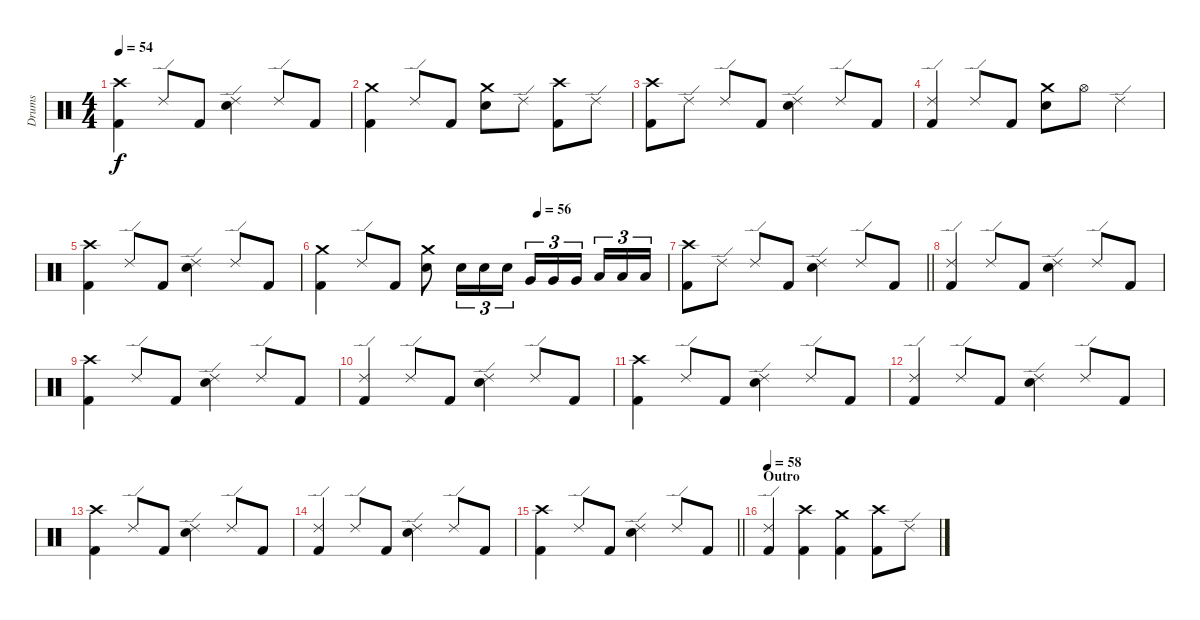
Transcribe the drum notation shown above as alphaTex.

\track ("Drums" "Drums") {instrument percussion}
\staff {score}
\articulation defaults
\ts (4 4)
\tempo 54
\clef neutral
\ks c
("Crash high (hit)" "Kick (hit) 2").4{dy f} "Ride (edge) 2".8 "Kick (hit) 2".8 ("Ride (edge) 2" "Electric Snare (hit)").4 "Ride (edge) 2".8 "Kick (hit) 2".8 |
("Crash medium (hit)" "Kick (hit) 2").4 "Ride (edge) 2".8 "Kick (hit) 2".8 ("Crash medium (hit)" "Electric Snare (hit)").8 "Ride (edge) 2".8 ("Crash high (hit)" "Kick (hit) 2").8 "Ride (edge) 2".8 |
("Crash high (hit)" "Kick (hit) 2").8 "Ride (edge) 2".8 "Ride (edge) 2".8 "Kick (hit) 2".8 ("Ride (edge) 2" "Electric Snare (hit)").4 "Ride (edge) 2".8 "Kick (hit) 2".8 |
("Ride (edge) 2" "Kick (hit) 2").4 "Ride (edge) 2".8 "Kick (hit) 2".8 ("Crash medium (hit)" "Electric Snare (hit)").8 "Hi-Hat (open)".8 "Ride (edge) 2".4 |
("Crash high (hit)" "Kick (hit) 2").4 "Ride (edge) 2".8 "Kick (hit) 2".8 ("Ride (edge) 2" "Electric Snare (hit)").4 "Ride (edge) 2".8 "Kick (hit) 2".8 |
\tempo (56 0.625)
("Crash medium (hit)" "Kick (hit) 2").4 "Ride (edge) 2".8 "Kick (hit) 2".8 ("Crash medium (hit)" "Electric Snare (hit)").8 "Electric Snare (hit)".16{tu (3 2)} "Electric Snare (hit)".16{tu (3 2)} "Electric Snare (hit)".16{tu (3 2)} "Very Low Tom (hit)".16{tu (3 2)} "Very Low Tom (hit)".16{tu (3 2)} "Very Low Tom (hit)".16{tu (3 2) beam splitsecondary} "Low Tom (hit)".16{tu (3 2)} "Low Tom (hit)".16{tu (3 2)} "Low Tom (hit)".16{tu (3 2)} |
\barLineRight lightlight
("Crash high (hit)" "Kick (hit) 2").8 "Ride (edge) 2".8 "Ride (edge) 2".8 "Kick (hit) 2".8 ("Ride (edge) 2" "Electric Snare (hit)").4 "Ride (edge) 2".8 "Kick (hit) 2".8 |
("Ride (edge) 2" "Kick (hit) 2").4 "Ride (edge) 2".8 "Kick (hit) 2".8 ("Ride (edge) 2" "Electric Snare (hit)").4 "Ride (edge) 2".8 "Kick (hit) 2".8 |
("Crash high (hit)" "Kick (hit) 2").4 "Ride (edge) 2".8 "Kick (hit) 2".8 ("Ride (edge) 2" "Electric Snare (hit)").4 "Ride (edge) 2".8 "Kick (hit) 2".8 |
("Ride (edge) 2" "Kick (hit) 2").4 "Ride (edge) 2".8 "Kick (hit) 2".8 ("Ride (edge) 2" "Electric Snare (hit)").4 "Ride (edge) 2".8 "Kick (hit) 2".8 |
("Crash high (hit)" "Kick (hit) 2").4 "Ride (edge) 2".8 "Kick (hit) 2".8 ("Ride (edge) 2" "Electric Snare (hit)").4 "Ride (edge) 2".8 "Kick (hit) 2".8 |
("Ride (edge) 2" "Kick (hit) 2").4 "Ride (edge) 2".8 "Kick (hit) 2".8 ("Ride (edge) 2" "Electric Snare (hit)").4 "Ride (edge) 2".8 "Kick (hit) 2".8 |
("Crash high (hit)" "Kick (hit) 2").4 "Ride (edge) 2".8 "Kick (hit) 2".8 ("Ride (edge) 2" "Electric Snare (hit)").4 "Ride (edge) 2".8 "Kick (hit) 2".8 |
("Ride (edge) 2" "Kick (hit) 2").4 "Ride (edge) 2".8 "Kick (hit) 2".8 ("Ride (edge) 2" "Electric Snare (hit)").4 "Ride (edge) 2".8 "Kick (hit) 2".8 |
\barLineRight lightlight
("Crash high (hit)" "Kick (hit) 2").4 "Ride (edge) 2".8 "Kick (hit) 2".8 ("Ride (edge) 2" "Electric Snare (hit)").4 "Ride (edge) 2".8 "Kick (hit) 2".8 |
\section ("" "Outro")
\tempo 58
("Ride (edge) 2" "Kick (hit) 2").4 ("Crash high (hit)" "Kick (hit) 2").4 ("Crash medium (hit)" "Kick (hit) 2").4 ("Crash high (hit)" "Kick (hit) 2").8 "Ride (edge) 2".8
